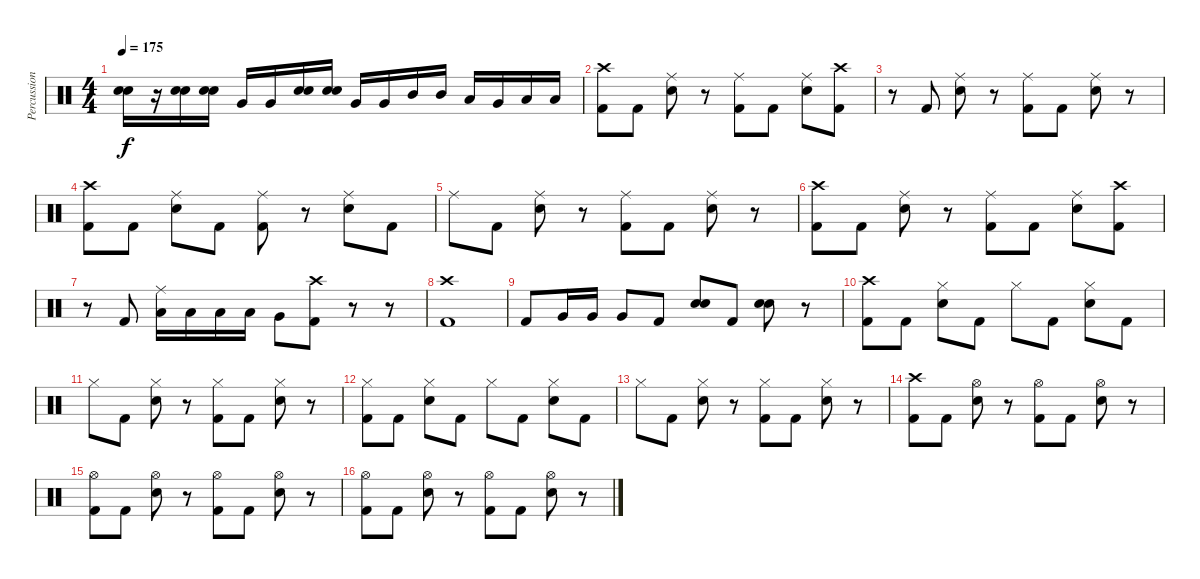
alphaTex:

\track ("Percussion" "Percussion") {instrument percussion}
\staff {score}
\articulation defaults
\ts (4 4)
\tempo 175
\clef neutral
\ks c
("Snare (hit) 2" "Electric Snare (hit)").16{dy f} r.16 ("Snare (hit) 2" "Electric Snare (hit)").16 ("Snare (hit) 2" "Electric Snare (hit)").16 "Very Low Tom (hit)".16 "Very Low Tom (hit)".16 ("Snare (hit) 2" "Electric Snare (hit)").16 ("Snare (hit) 2" "Electric Snare (hit)").16 "Very Low Tom (hit)".16 "Very Low Tom (hit)".16 "Mid Tom (hit)".16 "Mid Tom (hit)".16 "Low Tom (hit)".16 "Very Low Tom (hit)".16 "Low Floor Tom (hit)".16 "Low Floor Tom (hit)".16 |
("Crash high (hit)" "Kick (hit) 2").8 "Kick (hit) 2".8 ("Ride (middle)" "Snare (hit) 2").8 r.8 ("Ride (middle)" "Kick (hit) 2").8 "Kick (hit) 2".8 ("Ride (middle)" "Snare (hit) 2").8 ("Crash high (hit)" "Kick (hit) 2").8 |
r.8 "Kick (hit) 2".8 ("Ride (middle)" "Snare (hit) 2").8 r.8 ("Ride (middle)" "Kick (hit) 2").8 "Kick (hit) 2".8 ("Ride (middle)" "Snare (hit) 2").8 r.8 |
("Crash high (hit)" "Kick (hit) 2").8 "Kick (hit) 2".8 ("Ride (middle)" "Snare (hit) 2").8 "Kick (hit) 2".8 ("Ride (middle)" "Kick (hit) 2").8 r.8 ("Ride (middle)" "Snare (hit) 2").8 "Kick (hit) 2".8 |
"Ride (middle)".8 "Kick (hit) 2".8 ("Ride (middle)" "Snare (hit) 2").8 r.8 ("Ride (middle)" "Kick (hit) 2").8 "Kick (hit) 2".8 ("Ride (middle)" "Snare (hit) 2").8 r.8 |
("Crash high (hit)" "Kick (hit) 2").8 "Kick (hit) 2".8 ("Ride (middle)" "Snare (hit) 2").8 r.8 ("Ride (middle)" "Kick (hit) 2").8 "Kick (hit) 2".8 ("Ride (middle)" "Snare (hit) 2").8 ("Crash high (hit)" "Kick (hit) 2").8 |
r.8 "Kick (hit) 2".8 ("Ride (middle)" "Low Tom (hit)").16 "Low Tom (hit)".16 "Low Tom (hit)".16 "Low Tom (hit)".16 "Very Low Tom (hit)".8 ("Crash high (hit)" "Kick (hit) 2").8 r.8 r.8 |
("Crash high (hit)" "Kick (hit) 2").1 |
"Kick (hit) 2".8 "Very Low Tom (hit)".16 "Very Low Tom (hit)".16 "Very Low Tom (hit)".8 "Kick (hit) 2".8 ("Snare (hit) 2" "Electric Snare (hit)").8 "Kick (hit) 2".8 ("Snare (hit) 2" "Electric Snare (hit)").8 r.8 |
("Crash high (hit)" "Kick (hit) 2").8 "Kick (hit) 2".8 ("Hi-Hat (closed)" "Snare (hit) 2").8 "Kick (hit) 2".8 "Hi-Hat (closed)".8 "Kick (hit) 2".8 ("Hi-Hat (closed)" "Snare (hit) 2").8 "Kick (hit) 2".8 |
"Hi-Hat (closed)".8 "Kick (hit) 2".8 ("Hi-Hat (closed)" "Snare (hit) 2").8 r.8 ("Hi-Hat (closed)" "Kick (hit) 2").8 "Kick (hit) 2".8 ("Hi-Hat (closed)" "Snare (hit) 2").8 r.8 |
("Hi-Hat (closed)" "Kick (hit) 2").8 "Kick (hit) 2".8 ("Hi-Hat (closed)" "Snare (hit) 2").8 "Kick (hit) 2".8 "Hi-Hat (closed)".8 "Kick (hit) 2".8 ("Hi-Hat (closed)" "Snare (hit) 2").8 "Kick (hit) 2".8 |
"Hi-Hat (closed)".8 "Kick (hit) 2".8 ("Hi-Hat (closed)" "Snare (hit) 2").8 r.8 ("Hi-Hat (closed)" "Kick (hit) 2").8 "Kick (hit) 2".8 ("Hi-Hat (closed)" "Snare (hit) 2").8 r.8 |
("Crash high (hit)" "Kick (hit) 2").8 "Kick (hit) 2".8 ("Hi-Hat (open)" "Snare (hit) 2").8 r.8 ("Hi-Hat (open)" "Kick (hit) 2").8 "Kick (hit) 2".8 ("Hi-Hat (open)" "Snare (hit) 2").8 r.8 |
("Hi-Hat (open)" "Kick (hit) 2").8 "Kick (hit) 2".8 ("Hi-Hat (open)" "Snare (hit) 2").8 r.8 ("Hi-Hat (open)" "Kick (hit) 2").8 "Kick (hit) 2".8 ("Hi-Hat (open)" "Snare (hit) 2").8 r.8 |
("Hi-Hat (open)" "Kick (hit) 2").8 "Kick (hit) 2".8 ("Hi-Hat (open)" "Snare (hit) 2").8 r.8 ("Hi-Hat (open)" "Kick (hit) 2").8 "Kick (hit) 2".8 ("Hi-Hat (open)" "Snare (hit) 2").8 r.8
